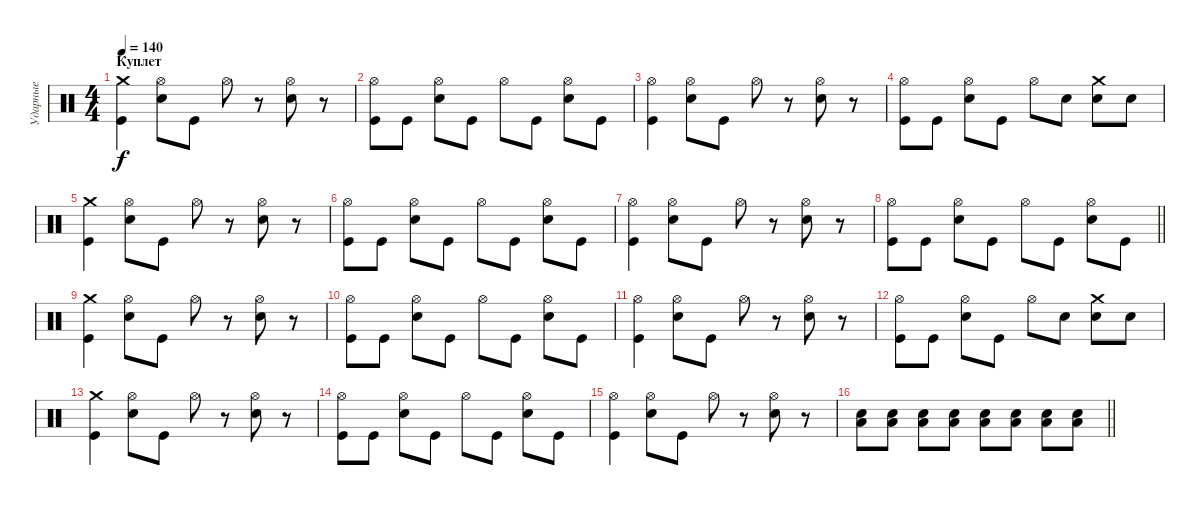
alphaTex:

\track ("Ударные" "Ударные") {instrument percussion}
\staff {score}
\articulation defaults
\ts (4 4)
\section ("" "Куплет")
\tempo 140
\clef neutral
\ks c
("Kick (hit)" "Crash medium (hit)").4{dy f} ("Electric Snare (hit)" "Hi-Hat (open)").8 "Kick (hit)".8 "Hi-Hat (open)".8 r.8 ("Electric Snare (hit)" "Hi-Hat (open)").8 r.8 |
("Kick (hit)" "Hi-Hat (open)").8 "Kick (hit)".8 ("Hi-Hat (open)" "Electric Snare (hit)").8 "Kick (hit)".8 "Hi-Hat (open)".8 "Kick (hit)".8 ("Electric Snare (hit)" "Hi-Hat (open)").8 "Kick (hit)".8 |
("Kick (hit)" "Hi-Hat (open)").4 ("Electric Snare (hit)" "Hi-Hat (open)").8 "Kick (hit)".8 "Hi-Hat (open)".8 r.8 ("Electric Snare (hit)" "Hi-Hat (open)").8 r.8 |
("Kick (hit)" "Hi-Hat (open)").8 "Kick (hit)".8 ("Hi-Hat (open)" "Electric Snare (hit)").8 "Kick (hit)".8 "Hi-Hat (open)".8 "Electric Snare (hit)".8 ("Electric Snare (hit)" "Crash medium (hit)").8 "Electric Snare (hit)".8 |
("Kick (hit)" "Crash medium (hit)").4 ("Electric Snare (hit)" "Hi-Hat (open)").8 "Kick (hit)".8 "Hi-Hat (open)".8 r.8 ("Electric Snare (hit)" "Hi-Hat (open)").8 r.8 |
("Kick (hit)" "Hi-Hat (open)").8 "Kick (hit)".8 ("Hi-Hat (open)" "Electric Snare (hit)").8 "Kick (hit)".8 "Hi-Hat (open)".8 "Kick (hit)".8 ("Electric Snare (hit)" "Hi-Hat (open)").8 "Kick (hit)".8 |
("Kick (hit)" "Hi-Hat (open)").4 ("Electric Snare (hit)" "Hi-Hat (open)").8 "Kick (hit)".8 "Hi-Hat (open)".8 r.8 ("Electric Snare (hit)" "Hi-Hat (open)").8 r.8 |
\barLineRight lightlight
("Kick (hit)" "Hi-Hat (open)").8 "Kick (hit)".8 ("Hi-Hat (open)" "Electric Snare (hit)").8 "Kick (hit)".8 "Hi-Hat (open)".8 "Kick (hit)".8 ("Electric Snare (hit)" "Hi-Hat (open)").8 "Kick (hit)".8 |
("Kick (hit)" "Crash medium (hit)").4 ("Electric Snare (hit)" "Hi-Hat (open)").8 "Kick (hit)".8 "Hi-Hat (open)".8 r.8 ("Electric Snare (hit)" "Hi-Hat (open)").8 r.8 |
("Kick (hit)" "Hi-Hat (open)").8 "Kick (hit)".8 ("Hi-Hat (open)" "Electric Snare (hit)").8 "Kick (hit)".8 "Hi-Hat (open)".8 "Kick (hit)".8 ("Electric Snare (hit)" "Hi-Hat (open)").8 "Kick (hit)".8 |
("Kick (hit)" "Hi-Hat (open)").4 ("Electric Snare (hit)" "Hi-Hat (open)").8 "Kick (hit)".8 "Hi-Hat (open)".8 r.8 ("Electric Snare (hit)" "Hi-Hat (open)").8 r.8 |
("Kick (hit)" "Hi-Hat (open)").8 "Kick (hit)".8 ("Hi-Hat (open)" "Electric Snare (hit)").8 "Kick (hit)".8 "Hi-Hat (open)".8 "Electric Snare (hit)".8 ("Electric Snare (hit)" "Crash medium (hit)").8 "Electric Snare (hit)".8 |
("Kick (hit)" "Crash medium (hit)").4 ("Electric Snare (hit)" "Hi-Hat (open)").8 "Kick (hit)".8 "Hi-Hat (open)".8 r.8 ("Electric Snare (hit)" "Hi-Hat (open)").8 r.8 |
("Kick (hit)" "Hi-Hat (open)").8 "Kick (hit)".8 ("Hi-Hat (open)" "Electric Snare (hit)").8 "Kick (hit)".8 "Hi-Hat (open)".8 "Kick (hit)".8 ("Electric Snare (hit)" "Hi-Hat (open)").8 "Kick (hit)".8 |
("Kick (hit)" "Hi-Hat (open)").4 ("Electric Snare (hit)" "Hi-Hat (open)").8 "Kick (hit)".8 "Hi-Hat (open)".8 r.8 ("Electric Snare (hit)" "Hi-Hat (open)").8 r.8 |
\barLineRight lightlight
("Low Floor Tom (hit)" "Electric Snare (hit)").8 ("Low Floor Tom (hit)" "Electric Snare (hit)").8 ("Low Floor Tom (hit)" "Electric Snare (hit)").8 ("Low Floor Tom (hit)" "Electric Snare (hit)").8 ("Low Floor Tom (hit)" "Electric Snare (hit)").8 ("Low Floor Tom (hit)" "Electric Snare (hit)").8 ("Low Floor Tom (hit)" "Electric Snare (hit)").8 ("Low Floor Tom (hit)" "Electric Snare (hit)").8
